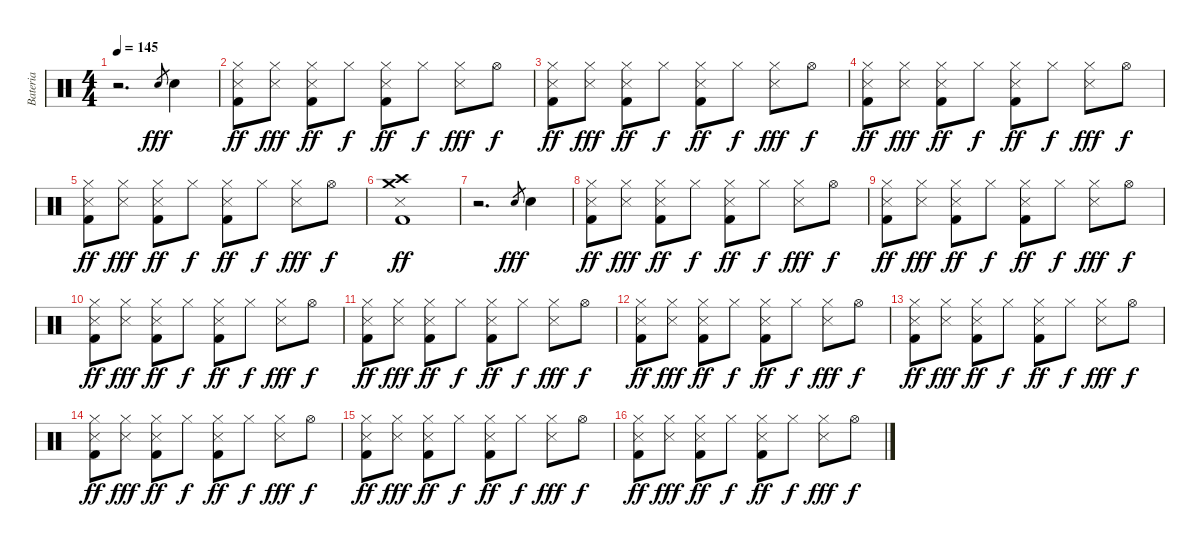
\track ("Bateria" "Bateria") {instrument percussion}
\staff {score}
\articulation defaults
\ts (4 4)
\tempo 145
\clef neutral
\ks c
r.2{d dy fff} "Electric Snare (hit)".8{gr} "Electric Snare (hit)".4 |
("Hi-Hat (closed)" "Snare (side stick) 3" "Kick (hit) 2").8{dy ff} ("Hi-Hat (closed)" "Snare (side stick) 3").8{dy fff} ("Hi-Hat (closed)" "Snare (side stick) 3" "Kick (hit) 2").8{dy ff} "Hi-Hat (closed)".8{dy f} ("Hi-Hat (closed)" "Snare (side stick) 3" "Kick (hit) 2").8{dy ff} "Hi-Hat (closed)".8{dy f} ("Hi-Hat (closed)" "Snare (side stick) 3").8{dy fff} "Hi-Hat (open)".8{dy f} |
("Hi-Hat (closed)" "Snare (side stick) 3" "Kick (hit) 2").8{dy ff} ("Hi-Hat (closed)" "Snare (side stick) 3").8{dy fff} ("Hi-Hat (closed)" "Snare (side stick) 3" "Kick (hit) 2").8{dy ff} "Hi-Hat (closed)".8{dy f} ("Hi-Hat (closed)" "Snare (side stick) 3" "Kick (hit) 2").8{dy ff} "Hi-Hat (closed)".8{dy f} ("Hi-Hat (closed)" "Snare (side stick) 3").8{dy fff} "Hi-Hat (open)".8{dy f} |
("Hi-Hat (closed)" "Snare (side stick) 3" "Kick (hit) 2").8{dy ff} ("Hi-Hat (closed)" "Snare (side stick) 3").8{dy fff} ("Hi-Hat (closed)" "Snare (side stick) 3" "Kick (hit) 2").8{dy ff} "Hi-Hat (closed)".8{dy f} ("Hi-Hat (closed)" "Snare (side stick) 3" "Kick (hit) 2").8{dy ff} "Hi-Hat (closed)".8{dy f} ("Hi-Hat (closed)" "Snare (side stick) 3").8{dy fff} "Hi-Hat (open)".8{dy f} |
("Hi-Hat (closed)" "Snare (side stick) 3" "Kick (hit) 2").8{dy ff} ("Hi-Hat (closed)" "Snare (side stick) 3").8{dy fff} ("Hi-Hat (closed)" "Snare (side stick) 3" "Kick (hit) 2").8{dy ff} "Hi-Hat (closed)".8{dy f} ("Hi-Hat (closed)" "Snare (side stick) 3" "Kick (hit) 2").8{dy ff} "Hi-Hat (closed)".8{dy f} ("Hi-Hat (closed)" "Snare (side stick) 3").8{dy fff} "Hi-Hat (open)".8{dy f} |
("Crash medium (hit)" "Crash high (hit)" "Snare (side stick) 3" "Kick (hit) 2").1{dy ff} |
r.2{d} "Electric Snare (hit)".8{gr dy fff} "Electric Snare (hit)".4 |
("Hi-Hat (closed)" "Snare (side stick) 3" "Kick (hit) 2").8{dy ff} ("Hi-Hat (closed)" "Snare (side stick) 3").8{dy fff} ("Hi-Hat (closed)" "Snare (side stick) 3" "Kick (hit) 2").8{dy ff} "Hi-Hat (closed)".8{dy f} ("Hi-Hat (closed)" "Snare (side stick) 3" "Kick (hit) 2").8{dy ff} "Hi-Hat (closed)".8{dy f} ("Hi-Hat (closed)" "Snare (side stick) 3").8{dy fff} "Hi-Hat (open)".8{dy f} |
("Hi-Hat (closed)" "Snare (side stick) 3" "Kick (hit) 2").8{dy ff} ("Hi-Hat (closed)" "Snare (side stick) 3").8{dy fff} ("Hi-Hat (closed)" "Snare (side stick) 3" "Kick (hit) 2").8{dy ff} "Hi-Hat (closed)".8{dy f} ("Hi-Hat (closed)" "Snare (side stick) 3" "Kick (hit) 2").8{dy ff} "Hi-Hat (closed)".8{dy f} ("Hi-Hat (closed)" "Snare (side stick) 3").8{dy fff} "Hi-Hat (open)".8{dy f} |
("Hi-Hat (closed)" "Snare (side stick) 3" "Kick (hit) 2").8{dy ff} ("Hi-Hat (closed)" "Snare (side stick) 3").8{dy fff} ("Hi-Hat (closed)" "Snare (side stick) 3" "Kick (hit) 2").8{dy ff} "Hi-Hat (closed)".8{dy f} ("Hi-Hat (closed)" "Snare (side stick) 3" "Kick (hit) 2").8{dy ff} "Hi-Hat (closed)".8{dy f} ("Hi-Hat (closed)" "Snare (side stick) 3").8{dy fff} "Hi-Hat (open)".8{dy f} |
("Hi-Hat (closed)" "Snare (side stick) 3" "Kick (hit) 2").8{dy ff} ("Hi-Hat (closed)" "Snare (side stick) 3").8{dy fff} ("Hi-Hat (closed)" "Snare (side stick) 3" "Kick (hit) 2").8{dy ff} "Hi-Hat (closed)".8{dy f} ("Hi-Hat (closed)" "Snare (side stick) 3" "Kick (hit) 2").8{dy ff} "Hi-Hat (closed)".8{dy f} ("Hi-Hat (closed)" "Snare (side stick) 3").8{dy fff} "Hi-Hat (open)".8{dy f} |
("Hi-Hat (closed)" "Snare (side stick) 3" "Kick (hit) 2").8{dy ff} ("Hi-Hat (closed)" "Snare (side stick) 3").8{dy fff} ("Hi-Hat (closed)" "Snare (side stick) 3" "Kick (hit) 2").8{dy ff} "Hi-Hat (closed)".8{dy f} ("Hi-Hat (closed)" "Snare (side stick) 3" "Kick (hit) 2").8{dy ff} "Hi-Hat (closed)".8{dy f} ("Hi-Hat (closed)" "Snare (side stick) 3").8{dy fff} "Hi-Hat (open)".8{dy f} |
("Hi-Hat (closed)" "Snare (side stick) 3" "Kick (hit) 2").8{dy ff} ("Hi-Hat (closed)" "Snare (side stick) 3").8{dy fff} ("Hi-Hat (closed)" "Snare (side stick) 3" "Kick (hit) 2").8{dy ff} "Hi-Hat (closed)".8{dy f} ("Hi-Hat (closed)" "Snare (side stick) 3" "Kick (hit) 2").8{dy ff} "Hi-Hat (closed)".8{dy f} ("Hi-Hat (closed)" "Snare (side stick) 3").8{dy fff} "Hi-Hat (open)".8{dy f} |
("Hi-Hat (closed)" "Snare (side stick) 3" "Kick (hit) 2").8{dy ff} ("Hi-Hat (closed)" "Snare (side stick) 3").8{dy fff} ("Hi-Hat (closed)" "Snare (side stick) 3" "Kick (hit) 2").8{dy ff} "Hi-Hat (closed)".8{dy f} ("Hi-Hat (closed)" "Snare (side stick) 3" "Kick (hit) 2").8{dy ff} "Hi-Hat (closed)".8{dy f} ("Hi-Hat (closed)" "Snare (side stick) 3").8{dy fff} "Hi-Hat (open)".8{dy f} |
("Hi-Hat (closed)" "Snare (side stick) 3" "Kick (hit) 2").8{dy ff} ("Hi-Hat (closed)" "Snare (side stick) 3").8{dy fff} ("Hi-Hat (closed)" "Snare (side stick) 3" "Kick (hit) 2").8{dy ff} "Hi-Hat (closed)".8{dy f} ("Hi-Hat (closed)" "Snare (side stick) 3" "Kick (hit) 2").8{dy ff} "Hi-Hat (closed)".8{dy f} ("Hi-Hat (closed)" "Snare (side stick) 3").8{dy fff} "Hi-Hat (open)".8{dy f} |
("Hi-Hat (closed)" "Snare (side stick) 3" "Kick (hit) 2").8{dy ff} ("Hi-Hat (closed)" "Snare (side stick) 3").8{dy fff} ("Hi-Hat (closed)" "Snare (side stick) 3" "Kick (hit) 2").8{dy ff} "Hi-Hat (closed)".8{dy f} ("Hi-Hat (closed)" "Snare (side stick) 3" "Kick (hit) 2").8{dy ff} "Hi-Hat (closed)".8{dy f} ("Hi-Hat (closed)" "Snare (side stick) 3").8{dy fff} "Hi-Hat (open)".8{dy f}
